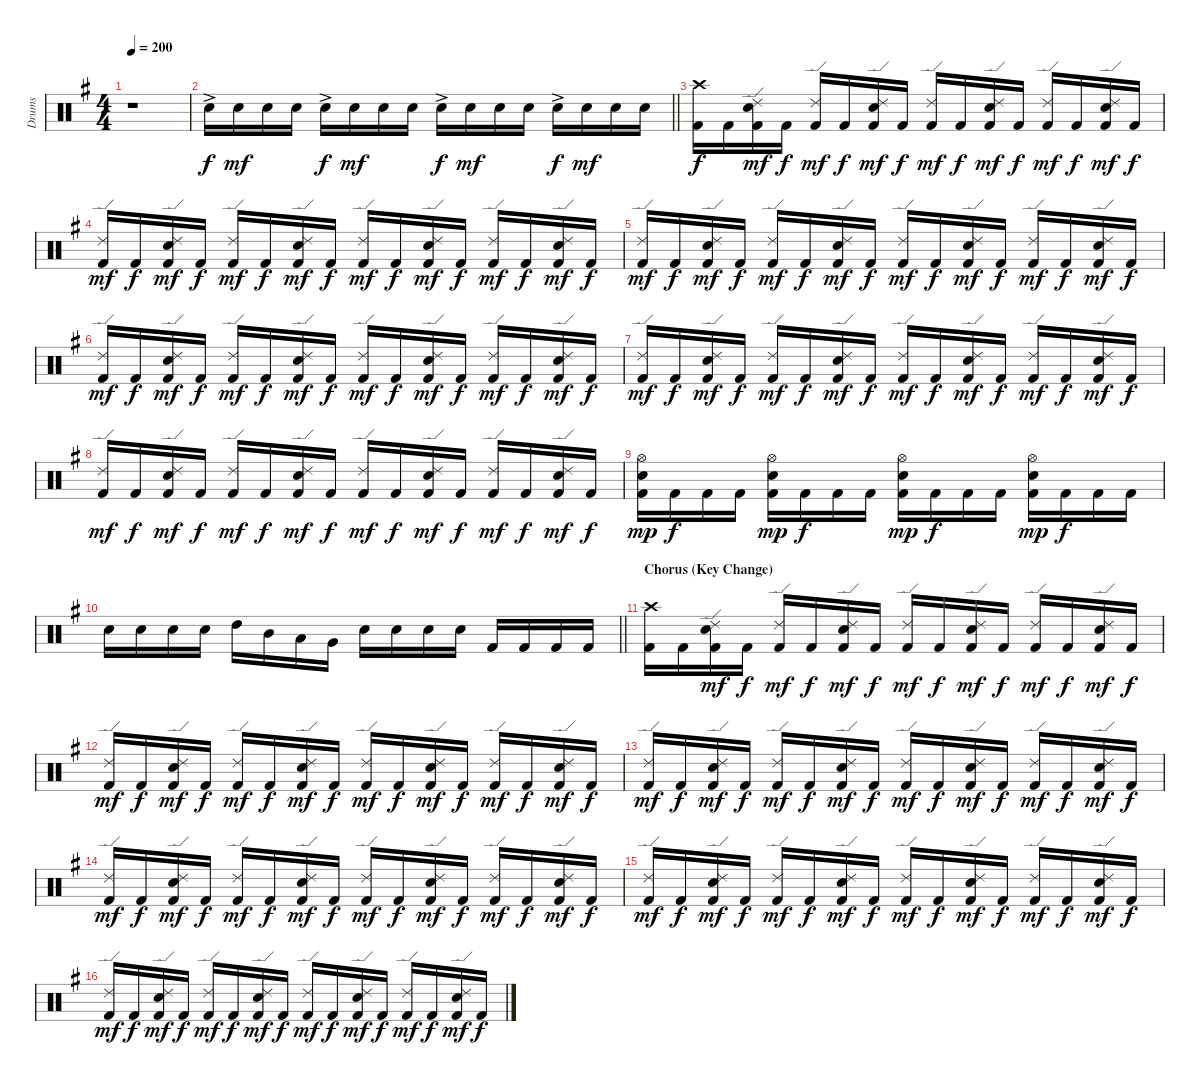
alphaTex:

\track ("Drums" "Drums") {instrument percussion}
\staff {score}
\articulation defaults
\ts (4 4)
\tempo 200
\clef neutral
\ks g
r.1{dy f} |
\barLineRight lightlight "Snare (hit) 2"{ac}.16 "Snare (hit) 2".16{dy mf} "Snare (hit) 2".16 "Snare (hit) 2".16 "Snare (hit) 2"{ac}.16{dy f} "Snare (hit) 2".16{dy mf} "Snare (hit) 2".16 "Snare (hit) 2".16 "Snare (hit) 2"{ac}.16{dy f} "Snare (hit) 2".16{dy mf} "Snare (hit) 2".16 "Snare (hit) 2".16 "Snare (hit) 2"{ac}.16{dy f} "Snare (hit) 2".16{dy mf} "Snare (hit) 2".16 "Snare (hit) 2".16
|
\section ("" "")
("Crash high (hit)" "Kick (hit) 2").16{dy f} "Kick (hit) 2".16 ("Ride (edge) 2" "Snare (hit) 2" "Kick (hit) 2").16{dy mf} "Kick (hit) 2".16{dy f} ("Ride (edge) 2" "Kick (hit) 2").16{dy mf} "Kick (hit) 2".16{dy f} ("Ride (edge) 2" "Snare (hit) 2" "Kick (hit) 2").16{dy mf} "Kick (hit) 2".16{dy f} ("Ride (edge) 2" "Kick (hit) 2").16{dy mf} "Kick (hit) 2".16{dy f} ("Ride (edge) 2" "Snare (hit) 2" "Kick (hit) 2").16{dy mf} "Kick (hit) 2".16{dy f} ("Ride (edge) 2" "Kick (hit) 2").16{dy mf} "Kick (hit) 2".16{dy f} ("Ride (edge) 2" "Snare (hit) 2" "Kick (hit) 2").16{dy mf} "Kick (hit) 2".16{dy f} |
("Ride (edge) 2" "Kick (hit) 2").16{dy mf} "Kick (hit) 2".16{dy f} ("Ride (edge) 2" "Snare (hit) 2" "Kick (hit) 2").16{dy mf} "Kick (hit) 2".16{dy f} ("Ride (edge) 2" "Kick (hit) 2").16{dy mf} "Kick (hit) 2".16{dy f} ("Ride (edge) 2" "Snare (hit) 2" "Kick (hit) 2").16{dy mf} "Kick (hit) 2".16{dy f} ("Ride (edge) 2" "Kick (hit) 2").16{dy mf} "Kick (hit) 2".16{dy f} ("Ride (edge) 2" "Snare (hit) 2" "Kick (hit) 2").16{dy mf} "Kick (hit) 2".16{dy f} ("Ride (edge) 2" "Kick (hit) 2").16{dy mf} "Kick (hit) 2".16{dy f} ("Ride (edge) 2" "Snare (hit) 2" "Kick (hit) 2").16{dy mf} "Kick (hit) 2".16{dy f} |
("Ride (edge) 2" "Kick (hit) 2").16{dy mf} "Kick (hit) 2".16{dy f} ("Ride (edge) 2" "Snare (hit) 2" "Kick (hit) 2").16{dy mf} "Kick (hit) 2".16{dy f} ("Ride (edge) 2" "Kick (hit) 2").16{dy mf} "Kick (hit) 2".16{dy f} ("Ride (edge) 2" "Snare (hit) 2" "Kick (hit) 2").16{dy mf} "Kick (hit) 2".16{dy f} ("Ride (edge) 2" "Kick (hit) 2").16{dy mf} "Kick (hit) 2".16{dy f} ("Ride (edge) 2" "Snare (hit) 2" "Kick (hit) 2").16{dy mf} "Kick (hit) 2".16{dy f} ("Ride (edge) 2" "Kick (hit) 2").16{dy mf} "Kick (hit) 2".16{dy f} ("Ride (edge) 2" "Snare (hit) 2" "Kick (hit) 2").16{dy mf} "Kick (hit) 2".16{dy f} |
("Ride (edge) 2" "Kick (hit) 2").16{dy mf} "Kick (hit) 2".16{dy f} ("Ride (edge) 2" "Snare (hit) 2" "Kick (hit) 2").16{dy mf} "Kick (hit) 2".16{dy f} ("Ride (edge) 2" "Kick (hit) 2").16{dy mf} "Kick (hit) 2".16{dy f} ("Ride (edge) 2" "Snare (hit) 2" "Kick (hit) 2").16{dy mf} "Kick (hit) 2".16{dy f} ("Ride (edge) 2" "Kick (hit) 2").16{dy mf} "Kick (hit) 2".16{dy f} ("Ride (edge) 2" "Snare (hit) 2" "Kick (hit) 2").16{dy mf} "Kick (hit) 2".16{dy f} ("Ride (edge) 2" "Kick (hit) 2").16{dy mf} "Kick (hit) 2".16{dy f} ("Ride (edge) 2" "Snare (hit) 2" "Kick (hit) 2").16{dy mf} "Kick (hit) 2".16{dy f} |
("Ride (edge) 2" "Kick (hit) 2").16{dy mf} "Kick (hit) 2".16{dy f} ("Ride (edge) 2" "Snare (hit) 2" "Kick (hit) 2").16{dy mf} "Kick (hit) 2".16{dy f} ("Ride (edge) 2" "Kick (hit) 2").16{dy mf} "Kick (hit) 2".16{dy f} ("Ride (edge) 2" "Snare (hit) 2" "Kick (hit) 2").16{dy mf} "Kick (hit) 2".16{dy f} ("Ride (edge) 2" "Kick (hit) 2").16{dy mf} "Kick (hit) 2".16{dy f} ("Ride (edge) 2" "Snare (hit) 2" "Kick (hit) 2").16{dy mf} "Kick (hit) 2".16{dy f} ("Ride (edge) 2" "Kick (hit) 2").16{dy mf} "Kick (hit) 2".16{dy f} ("Ride (edge) 2" "Snare (hit) 2" "Kick (hit) 2").16{dy mf} "Kick (hit) 2".16{dy f} |
("Ride (edge) 2" "Kick (hit) 2").16{dy mf} "Kick (hit) 2".16{dy f} ("Ride (edge) 2" "Snare (hit) 2" "Kick (hit) 2").16{dy mf} "Kick (hit) 2".16{dy f} ("Ride (edge) 2" "Kick (hit) 2").16{dy mf} "Kick (hit) 2".16{dy f} ("Ride (edge) 2" "Snare (hit) 2" "Kick (hit) 2").16{dy mf} "Kick (hit) 2".16{dy f} ("Ride (edge) 2" "Kick (hit) 2").16{dy mf} "Kick (hit) 2".16{dy f} ("Ride (edge) 2" "Snare (hit) 2" "Kick (hit) 2").16{dy mf} "Kick (hit) 2".16{dy f} ("Ride (edge) 2" "Kick (hit) 2").16{dy mf} "Kick (hit) 2".16{dy f} ("Ride (edge) 2" "Snare (hit) 2" "Kick (hit) 2").16{dy mf} "Kick (hit) 2".16{dy f} |
("Hi-Hat (open)" "Snare (hit) 2" "Kick (hit) 2").16{dy mp} "Kick (hit) 2".16{dy f} "Kick (hit) 2".16 "Kick (hit) 2".16 ("Hi-Hat (open)" "Snare (hit) 2" "Kick (hit) 2").16{dy mp} "Kick (hit) 2".16{dy f} "Kick (hit) 2".16 "Kick (hit) 2".16 ("Hi-Hat (open)" "Snare (hit) 2" "Kick (hit) 2").16{dy mp} "Kick (hit) 2".16{dy f} "Kick (hit) 2".16 "Kick (hit) 2".16 ("Hi-Hat (open)" "Snare (hit) 2" "Kick (hit) 2").16{dy mp} "Kick (hit) 2".16{dy f} "Kick (hit) 2".16 "Kick (hit) 2".16 |
\barLineRight lightlight "Snare (hit) 2".16 "Snare (hit) 2".16 "Snare (hit) 2".16 "Snare (hit) 2".16 "High Tom (hit)".16 "Mid Tom (hit)".16 "Low Tom (hit)".16 "Very Low Tom (hit)".16 "Snare (hit) 2".16 "Snare (hit) 2".16 "Snare (hit) 2".16 "Snare (hit) 2".16 "Kick (hit) 2".16 "Kick (hit) 2".16 "Kick (hit) 2".16 "Kick (hit) 2".16
|
\section ("" "Chorus (Key Change)")
("Crash high (hit)" "Kick (hit) 2").16 "Kick (hit) 2".16 ("Ride (edge) 2" "Snare (hit) 2" "Kick (hit) 2").16{dy mf} "Kick (hit) 2".16{dy f} ("Ride (edge) 2" "Kick (hit) 2").16{dy mf} "Kick (hit) 2".16{dy f} ("Ride (edge) 2" "Snare (hit) 2" "Kick (hit) 2").16{dy mf} "Kick (hit) 2".16{dy f} ("Ride (edge) 2" "Kick (hit) 2").16{dy mf} "Kick (hit) 2".16{dy f} ("Ride (edge) 2" "Snare (hit) 2" "Kick (hit) 2").16{dy mf} "Kick (hit) 2".16{dy f} ("Ride (edge) 2" "Kick (hit) 2").16{dy mf} "Kick (hit) 2".16{dy f} ("Ride (edge) 2" "Snare (hit) 2" "Kick (hit) 2").16{dy mf} "Kick (hit) 2".16{dy f} |
("Ride (edge) 2" "Kick (hit) 2").16{dy mf} "Kick (hit) 2".16{dy f} ("Ride (edge) 2" "Snare (hit) 2" "Kick (hit) 2").16{dy mf} "Kick (hit) 2".16{dy f} ("Ride (edge) 2" "Kick (hit) 2").16{dy mf} "Kick (hit) 2".16{dy f} ("Ride (edge) 2" "Snare (hit) 2" "Kick (hit) 2").16{dy mf} "Kick (hit) 2".16{dy f} ("Ride (edge) 2" "Kick (hit) 2").16{dy mf} "Kick (hit) 2".16{dy f} ("Ride (edge) 2" "Snare (hit) 2" "Kick (hit) 2").16{dy mf} "Kick (hit) 2".16{dy f} ("Ride (edge) 2" "Kick (hit) 2").16{dy mf} "Kick (hit) 2".16{dy f} ("Ride (edge) 2" "Snare (hit) 2" "Kick (hit) 2").16{dy mf} "Kick (hit) 2".16{dy f} |
("Ride (edge) 2" "Kick (hit) 2").16{dy mf} "Kick (hit) 2".16{dy f} ("Ride (edge) 2" "Snare (hit) 2" "Kick (hit) 2").16{dy mf} "Kick (hit) 2".16{dy f} ("Ride (edge) 2" "Kick (hit) 2").16{dy mf} "Kick (hit) 2".16{dy f} ("Ride (edge) 2" "Snare (hit) 2" "Kick (hit) 2").16{dy mf} "Kick (hit) 2".16{dy f} ("Ride (edge) 2" "Kick (hit) 2").16{dy mf} "Kick (hit) 2".16{dy f} ("Ride (edge) 2" "Snare (hit) 2" "Kick (hit) 2").16{dy mf} "Kick (hit) 2".16{dy f} ("Ride (edge) 2" "Kick (hit) 2").16{dy mf} "Kick (hit) 2".16{dy f} ("Ride (edge) 2" "Snare (hit) 2" "Kick (hit) 2").16{dy mf} "Kick (hit) 2".16{dy f} |
("Ride (edge) 2" "Kick (hit) 2").16{dy mf} "Kick (hit) 2".16{dy f} ("Ride (edge) 2" "Snare (hit) 2" "Kick (hit) 2").16{dy mf} "Kick (hit) 2".16{dy f} ("Ride (edge) 2" "Kick (hit) 2").16{dy mf} "Kick (hit) 2".16{dy f} ("Ride (edge) 2" "Snare (hit) 2" "Kick (hit) 2").16{dy mf} "Kick (hit) 2".16{dy f} ("Ride (edge) 2" "Kick (hit) 2").16{dy mf} "Kick (hit) 2".16{dy f} ("Ride (edge) 2" "Snare (hit) 2" "Kick (hit) 2").16{dy mf} "Kick (hit) 2".16{dy f} ("Ride (edge) 2" "Kick (hit) 2").16{dy mf} "Kick (hit) 2".16{dy f} ("Ride (edge) 2" "Snare (hit) 2" "Kick (hit) 2").16{dy mf} "Kick (hit) 2".16{dy f} |
("Ride (edge) 2" "Kick (hit) 2").16{dy mf} "Kick (hit) 2".16{dy f} ("Ride (edge) 2" "Snare (hit) 2" "Kick (hit) 2").16{dy mf} "Kick (hit) 2".16{dy f} ("Ride (edge) 2" "Kick (hit) 2").16{dy mf} "Kick (hit) 2".16{dy f} ("Ride (edge) 2" "Snare (hit) 2" "Kick (hit) 2").16{dy mf} "Kick (hit) 2".16{dy f} ("Ride (edge) 2" "Kick (hit) 2").16{dy mf} "Kick (hit) 2".16{dy f} ("Ride (edge) 2" "Snare (hit) 2" "Kick (hit) 2").16{dy mf} "Kick (hit) 2".16{dy f} ("Ride (edge) 2" "Kick (hit) 2").16{dy mf} "Kick (hit) 2".16{dy f} ("Ride (edge) 2" "Snare (hit) 2" "Kick (hit) 2").16{dy mf} "Kick (hit) 2".16{dy f} |
("Ride (edge) 2" "Kick (hit) 2").16{dy mf} "Kick (hit) 2".16{dy f} ("Ride (edge) 2" "Snare (hit) 2" "Kick (hit) 2").16{dy mf} "Kick (hit) 2".16{dy f} ("Ride (edge) 2" "Kick (hit) 2").16{dy mf} "Kick (hit) 2".16{dy f} ("Ride (edge) 2" "Snare (hit) 2" "Kick (hit) 2").16{dy mf} "Kick (hit) 2".16{dy f} ("Ride (edge) 2" "Kick (hit) 2").16{dy mf} "Kick (hit) 2".16{dy f} ("Ride (edge) 2" "Snare (hit) 2" "Kick (hit) 2").16{dy mf} "Kick (hit) 2".16{dy f} ("Ride (edge) 2" "Kick (hit) 2").16{dy mf} "Kick (hit) 2".16{dy f} ("Ride (edge) 2" "Snare (hit) 2" "Kick (hit) 2").16{dy mf} "Kick (hit) 2".16{dy f}
